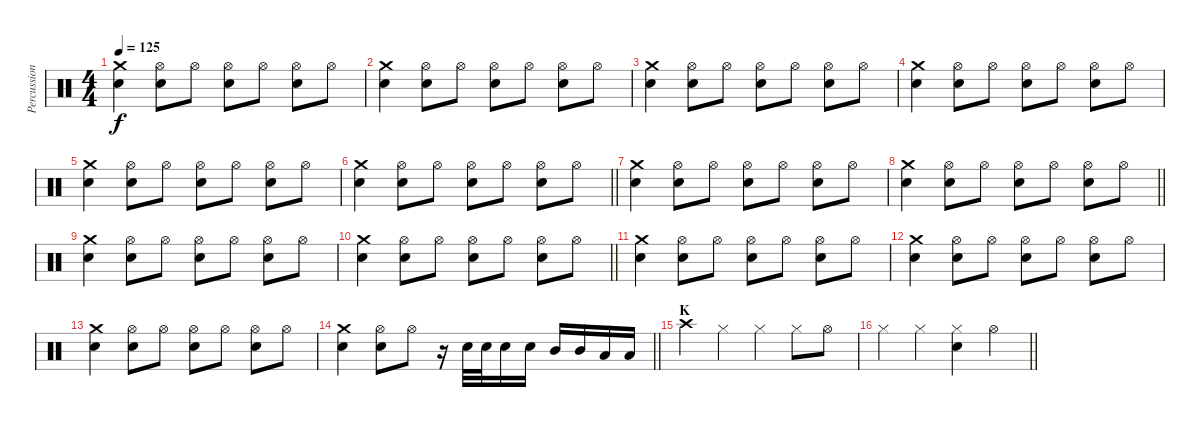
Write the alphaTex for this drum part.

\track ("Percussion" "Percussion") {instrument percussion}
\staff {score}
\articulation defaults
\ts (4 4)
\tempo 125
\clef neutral
\ks c
("Crash medium (hit)" "Snare (hit) 2").4{dy f} ("Hi-Hat (open)" "Snare (hit) 2").8 "Hi-Hat (open)".8 ("Hi-Hat (open)" "Snare (hit) 2").8 "Hi-Hat (open)".8 ("Hi-Hat (open)" "Snare (hit) 2").8 "Hi-Hat (open)".8 |
("Crash medium (hit)" "Snare (hit) 2").4 ("Hi-Hat (open)" "Snare (hit) 2").8 "Hi-Hat (open)".8 ("Hi-Hat (open)" "Snare (hit) 2").8 "Hi-Hat (open)".8 ("Hi-Hat (open)" "Snare (hit) 2").8 "Hi-Hat (open)".8 |
("Crash medium (hit)" "Snare (hit) 2").4 ("Hi-Hat (open)" "Snare (hit) 2").8 "Hi-Hat (open)".8 ("Hi-Hat (open)" "Snare (hit) 2").8 "Hi-Hat (open)".8 ("Hi-Hat (open)" "Snare (hit) 2").8 "Hi-Hat (open)".8 |
("Crash medium (hit)" "Snare (hit) 2").4 ("Hi-Hat (open)" "Snare (hit) 2").8 "Hi-Hat (open)".8 ("Hi-Hat (open)" "Snare (hit) 2").8 "Hi-Hat (open)".8 ("Hi-Hat (open)" "Snare (hit) 2").8 "Hi-Hat (open)".8 |
("Crash medium (hit)" "Snare (hit) 2").4 ("Hi-Hat (open)" "Snare (hit) 2").8 "Hi-Hat (open)".8 ("Hi-Hat (open)" "Snare (hit) 2").8 "Hi-Hat (open)".8 ("Hi-Hat (open)" "Snare (hit) 2").8 "Hi-Hat (open)".8 |
\barLineRight lightlight
("Crash medium (hit)" "Snare (hit) 2").4 ("Hi-Hat (open)" "Snare (hit) 2").8 "Hi-Hat (open)".8 ("Hi-Hat (open)" "Snare (hit) 2").8 "Hi-Hat (open)".8 ("Hi-Hat (open)" "Snare (hit) 2").8 "Hi-Hat (open)".8 |
("Crash medium (hit)" "Snare (hit) 2").4 ("Hi-Hat (open)" "Snare (hit) 2").8 "Hi-Hat (open)".8 ("Hi-Hat (open)" "Snare (hit) 2").8 "Hi-Hat (open)".8 ("Hi-Hat (open)" "Snare (hit) 2").8 "Hi-Hat (open)".8 |
\barLineRight lightlight
("Crash medium (hit)" "Snare (hit) 2").4 ("Hi-Hat (open)" "Snare (hit) 2").8 "Hi-Hat (open)".8 ("Hi-Hat (open)" "Snare (hit) 2").8 "Hi-Hat (open)".8 ("Hi-Hat (open)" "Snare (hit) 2").8 "Hi-Hat (open)".8 |
("Crash medium (hit)" "Snare (hit) 2").4 ("Hi-Hat (open)" "Snare (hit) 2").8 "Hi-Hat (open)".8 ("Hi-Hat (open)" "Snare (hit) 2").8 "Hi-Hat (open)".8 ("Hi-Hat (open)" "Snare (hit) 2").8 "Hi-Hat (open)".8 |
\barLineRight lightlight
("Crash medium (hit)" "Snare (hit) 2").4 ("Hi-Hat (open)" "Snare (hit) 2").8 "Hi-Hat (open)".8 ("Hi-Hat (open)" "Snare (hit) 2").8 "Hi-Hat (open)".8 ("Hi-Hat (open)" "Snare (hit) 2").8 "Hi-Hat (open)".8 |
("Crash medium (hit)" "Snare (hit) 2").4 ("Hi-Hat (open)" "Snare (hit) 2").8 "Hi-Hat (open)".8 ("Hi-Hat (open)" "Snare (hit) 2").8 "Hi-Hat (open)".8 ("Hi-Hat (open)" "Snare (hit) 2").8 "Hi-Hat (open)".8 |
("Crash medium (hit)" "Snare (hit) 2").4 ("Hi-Hat (open)" "Snare (hit) 2").8 "Hi-Hat (open)".8 ("Hi-Hat (open)" "Snare (hit) 2").8 "Hi-Hat (open)".8 ("Hi-Hat (open)" "Snare (hit) 2").8 "Hi-Hat (open)".8 |
("Crash medium (hit)" "Snare (hit) 2").4 ("Hi-Hat (open)" "Snare (hit) 2").8 "Hi-Hat (open)".8 ("Hi-Hat (open)" "Snare (hit) 2").8 "Hi-Hat (open)".8 ("Hi-Hat (open)" "Snare (hit) 2").8 "Hi-Hat (open)".8 |
\barLineRight lightlight
("Crash medium (hit)" "Snare (hit) 2").4 ("Hi-Hat (open)" "Snare (hit) 2").8 "Hi-Hat (open)".8 r.16 "Snare (hit) 2".32 "Snare (hit) 2".32 "Snare (hit) 2".16 "Snare (hit) 2".16 "Mid Tom (hit)".16 "Mid Tom (hit)".16 "Low Tom (hit)".16 "Low Tom (hit)".16 |
\section ("" "K")
"Crash high (hit)".4 "Hi-Hat (closed)".4 "Hi-Hat (closed)".4 "Hi-Hat (closed)".8 "Hi-Hat (open)".8 |
\barLineRight lightlight "Hi-Hat (closed)".4 "Hi-Hat (closed)".4
("Hi-Hat (closed)" "Snare (hit) 2").4 "Hi-Hat (open)".4
